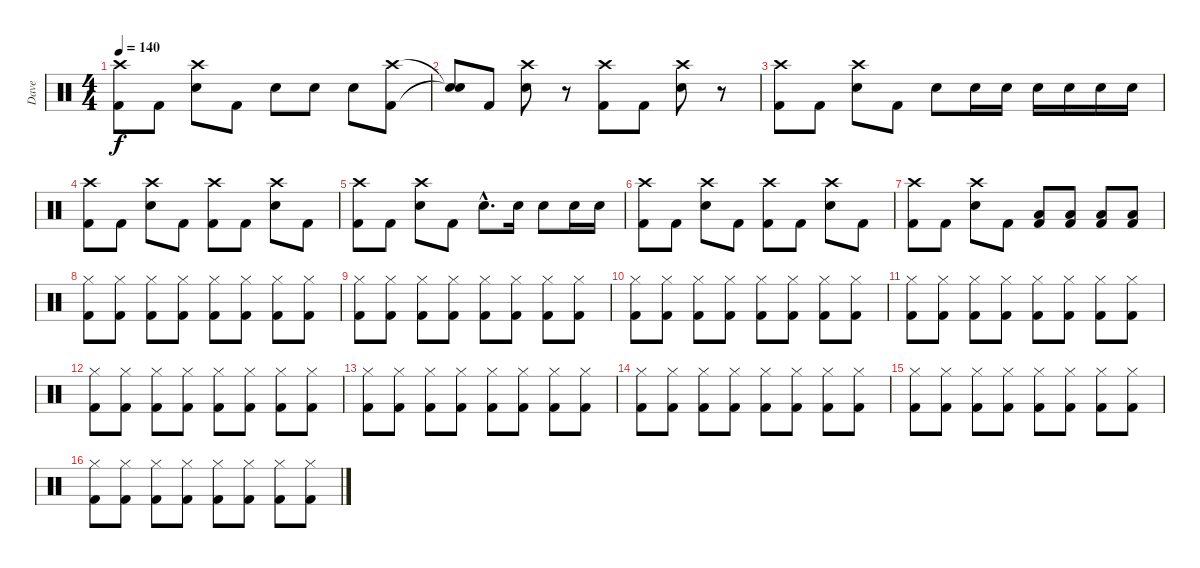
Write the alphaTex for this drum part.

\track ("Dave" "Dave") {instrument percussion}
\staff {score}
\articulation defaults
\ts (4 4)
\tempo 140
\clef neutral
\ks c
("Crash high (hit)" "Kick (hit) 2").8{dy f} "Kick (hit) 2".8 ("Crash high (hit)" "Snare (hit) 2").8 "Kick (hit) 2".8 "Snare (hit) 2".8 "Snare (hit) 2".8 "Snare (hit) 2".8 ("Crash high (hit)" "Kick (hit) 2").8 |
("Snare (hit)"{t} "Snare (hit)"{t}).8 "Kick (hit) 2".8 ("Crash high (hit)" "Snare (hit) 2").8 r.8 ("Crash high (hit)" "Kick (hit) 2").8 "Kick (hit) 2".8 ("Crash high (hit)" "Snare (hit) 2").8 r.8 |
("Crash high (hit)" "Kick (hit) 2").8 "Kick (hit) 2".8 ("Crash high (hit)" "Snare (hit) 2").8 "Kick (hit) 2".8 "Snare (hit) 2".8 "Snare (hit) 2".16 "Snare (hit) 2".16 "Snare (hit) 2".16 "Snare (hit) 2".16 "Snare (hit) 2".16 "Snare (hit) 2".16 |
("Crash high (hit)" "Kick (hit) 2").8 "Kick (hit) 2".8 ("Crash high (hit)" "Snare (hit) 2").8 "Kick (hit) 2".8 ("Crash high (hit)" "Kick (hit) 2").8 "Kick (hit) 2".8 ("Crash high (hit)" "Snare (hit) 2").8 "Kick (hit) 2".8 |
("Crash high (hit)" "Kick (hit) 2").8 "Kick (hit) 2".8 ("Crash high (hit)" "Snare (hit) 2").8 "Kick (hit) 2".8 "Snare (hit) 2"{hac}.8{d} "Snare (hit) 2".16 "Snare (hit) 2".8 "Snare (hit) 2".16 "Snare (hit) 2".16 |
("Crash high (hit)" "Kick (hit) 2").8 "Kick (hit) 2".8 ("Crash high (hit)" "Snare (hit) 2").8 "Kick (hit) 2".8 ("Crash high (hit)" "Kick (hit) 2").8 "Kick (hit) 2".8 ("Crash high (hit)" "Snare (hit) 2").8 "Kick (hit) 2".8 |
("Crash high (hit)" "Kick (hit) 2").8 "Kick (hit) 2".8 ("Crash high (hit)" "Snare (hit) 2").8 "Kick (hit) 2".8 ("Low Floor Tom (hit)" "Kick (hit) 2").8 ("Low Floor Tom (hit)" "Kick (hit) 2").8 ("Low Floor Tom (hit)" "Kick (hit) 2").8 ("Low Floor Tom (hit)" "Kick (hit) 2").8 |
("Hi-Hat (closed)" "Kick (hit) 2").8 ("Hi-Hat (closed)" "Kick (hit) 2").8 ("Hi-Hat (closed)" "Kick (hit) 2").8 ("Hi-Hat (closed)" "Kick (hit) 2").8 ("Hi-Hat (closed)" "Kick (hit) 2").8 ("Hi-Hat (closed)" "Kick (hit) 2").8 ("Hi-Hat (closed)" "Kick (hit) 2").8 ("Hi-Hat (closed)" "Kick (hit) 2").8 |
("Hi-Hat (closed)" "Kick (hit) 2").8 ("Hi-Hat (closed)" "Kick (hit) 2").8 ("Hi-Hat (closed)" "Kick (hit) 2").8 ("Hi-Hat (closed)" "Kick (hit) 2").8 ("Hi-Hat (closed)" "Kick (hit) 2").8 ("Hi-Hat (closed)" "Kick (hit) 2").8 ("Hi-Hat (closed)" "Kick (hit) 2").8 ("Hi-Hat (closed)" "Kick (hit) 2").8 |
("Hi-Hat (closed)" "Kick (hit) 2").8 ("Hi-Hat (closed)" "Kick (hit) 2").8 ("Hi-Hat (closed)" "Kick (hit) 2").8 ("Hi-Hat (closed)" "Kick (hit) 2").8 ("Hi-Hat (closed)" "Kick (hit) 2").8 ("Hi-Hat (closed)" "Kick (hit) 2").8 ("Hi-Hat (closed)" "Kick (hit) 2").8 ("Hi-Hat (closed)" "Kick (hit) 2").8 |
("Hi-Hat (closed)" "Kick (hit) 2").8 ("Hi-Hat (closed)" "Kick (hit) 2").8 ("Hi-Hat (closed)" "Kick (hit) 2").8 ("Hi-Hat (closed)" "Kick (hit) 2").8 ("Hi-Hat (closed)" "Kick (hit) 2").8 ("Hi-Hat (closed)" "Kick (hit) 2").8 ("Hi-Hat (closed)" "Kick (hit) 2").8 ("Hi-Hat (closed)" "Kick (hit) 2").8 |
("Hi-Hat (closed)" "Kick (hit) 2").8 ("Hi-Hat (closed)" "Kick (hit) 2").8 ("Hi-Hat (closed)" "Kick (hit) 2").8 ("Hi-Hat (closed)" "Kick (hit) 2").8 ("Hi-Hat (closed)" "Kick (hit) 2").8 ("Hi-Hat (closed)" "Kick (hit) 2").8 ("Hi-Hat (closed)" "Kick (hit) 2").8 ("Hi-Hat (closed)" "Kick (hit) 2").8 |
("Hi-Hat (closed)" "Kick (hit) 2").8 ("Hi-Hat (closed)" "Kick (hit) 2").8 ("Hi-Hat (closed)" "Kick (hit) 2").8 ("Hi-Hat (closed)" "Kick (hit) 2").8 ("Hi-Hat (closed)" "Kick (hit) 2").8 ("Hi-Hat (closed)" "Kick (hit) 2").8 ("Hi-Hat (closed)" "Kick (hit) 2").8 ("Hi-Hat (closed)" "Kick (hit) 2").8 |
("Hi-Hat (closed)" "Kick (hit) 2").8 ("Hi-Hat (closed)" "Kick (hit) 2").8 ("Hi-Hat (closed)" "Kick (hit) 2").8 ("Hi-Hat (closed)" "Kick (hit) 2").8 ("Hi-Hat (closed)" "Kick (hit) 2").8 ("Hi-Hat (closed)" "Kick (hit) 2").8 ("Hi-Hat (closed)" "Kick (hit) 2").8 ("Hi-Hat (closed)" "Kick (hit) 2").8 |
("Hi-Hat (closed)" "Kick (hit) 2").8 ("Hi-Hat (closed)" "Kick (hit) 2").8 ("Hi-Hat (closed)" "Kick (hit) 2").8 ("Hi-Hat (closed)" "Kick (hit) 2").8 ("Hi-Hat (closed)" "Kick (hit) 2").8 ("Hi-Hat (closed)" "Kick (hit) 2").8 ("Hi-Hat (closed)" "Kick (hit) 2").8 ("Hi-Hat (closed)" "Kick (hit) 2").8 |
("Hi-Hat (closed)" "Kick (hit) 2").8 ("Hi-Hat (closed)" "Kick (hit) 2").8 ("Hi-Hat (closed)" "Kick (hit) 2").8 ("Hi-Hat (closed)" "Kick (hit) 2").8 ("Hi-Hat (closed)" "Kick (hit) 2").8 ("Hi-Hat (closed)" "Kick (hit) 2").8 ("Hi-Hat (closed)" "Kick (hit) 2").8 ("Hi-Hat (closed)" "Kick (hit) 2").8
